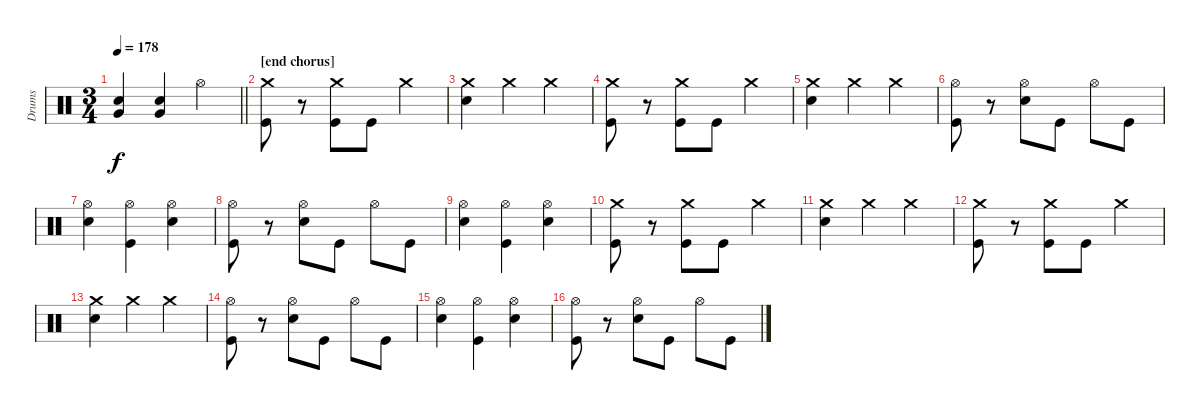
\track ("Drums" "Drums") {instrument percussion}
\staff {score}
\articulation defaults
\ts (3 4)
\tempo 178
\clef neutral
\barLineRight lightlight
\ks c
("Very Low Tom (hit)" "Snare (hit) 2").4{dy f} ("Very Low Tom (hit)" "Snare (hit) 2").4 "Hi-Hat (open)".4 |
\section ("" "[end chorus]")
("Crash medium (hit)" "Kick (hit)").8 r.8 ("Crash medium (hit)" "Kick (hit)").8 "Kick (hit)".8 "Crash medium (hit)".4 |
("Crash medium (hit)" "Snare (hit) 2").4 "Crash medium (hit)".4 "Crash medium (hit)".4 |
("Crash medium (hit)" "Kick (hit)").8 r.8 ("Crash medium (hit)" "Kick (hit)").8 "Kick (hit)".8 "Crash medium (hit)".4 |
("Crash medium (hit)" "Snare (hit) 2").4 "Crash medium (hit)".4 "Crash medium (hit)".4 |
("Hi-Hat (open)" "Kick (hit)").8 r.8 ("Hi-Hat (open)" "Snare (hit) 2").8 "Kick (hit)".8 "Hi-Hat (open)".8 "Kick (hit)".8 |
("Hi-Hat (open)" "Snare (hit) 2").4 ("Hi-Hat (open)" "Kick (hit)").4 ("Hi-Hat (open)" "Snare (hit) 2").4 |
("Hi-Hat (open)" "Kick (hit)").8 r.8 ("Hi-Hat (open)" "Snare (hit) 2").8 "Kick (hit)".8 "Hi-Hat (open)".8 "Kick (hit)".8 |
("Hi-Hat (open)" "Snare (hit) 2").4 ("Hi-Hat (open)" "Kick (hit)").4 ("Hi-Hat (open)" "Snare (hit) 2").4 |
("Crash medium (hit)" "Kick (hit)").8 r.8 ("Crash medium (hit)" "Kick (hit)").8 "Kick (hit)".8 "Crash medium (hit)".4 |
("Crash medium (hit)" "Snare (hit) 2").4 "Crash medium (hit)".4 "Crash medium (hit)".4 |
("Crash medium (hit)" "Kick (hit)").8 r.8 ("Crash medium (hit)" "Kick (hit)").8 "Kick (hit)".8 "Crash medium (hit)".4 |
("Crash medium (hit)" "Snare (hit) 2").4 "Crash medium (hit)".4 "Crash medium (hit)".4 |
("Hi-Hat (open)" "Kick (hit)").8 r.8 ("Hi-Hat (open)" "Snare (hit) 2").8 "Kick (hit)".8 "Hi-Hat (open)".8 "Kick (hit)".8 |
("Hi-Hat (open)" "Snare (hit) 2").4 ("Hi-Hat (open)" "Kick (hit)").4 ("Hi-Hat (open)" "Snare (hit) 2").4 |
("Hi-Hat (open)" "Kick (hit)").8 r.8 ("Hi-Hat (open)" "Snare (hit) 2").8 "Kick (hit)".8 "Hi-Hat (open)".8 "Kick (hit)".8
